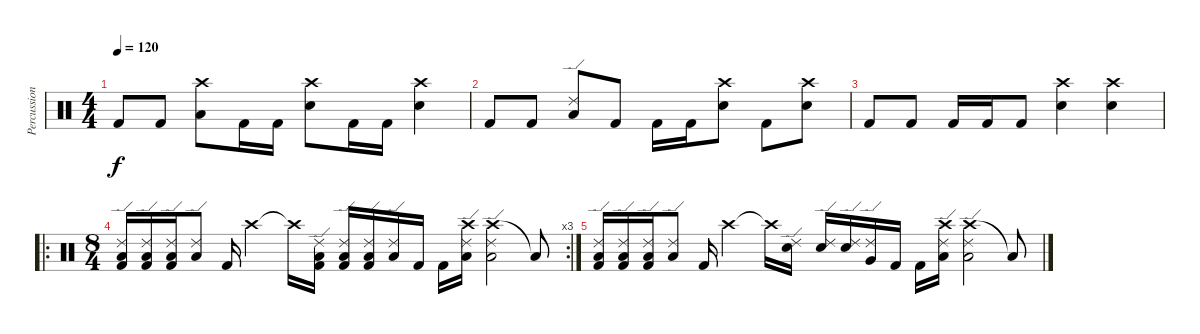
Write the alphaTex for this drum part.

\track ("Percussions" "Percussion") {instrument percussion}
\staff {score}
\articulation defaults
\ts (4 4)
\tempo 120
\clef neutral
\ks c "Kick (hit) 2".8{dy f} "Kick (hit) 2".8
("Crash high (hit)" "Low Tom (hit)").8 "Kick (hit) 2".16 "Kick (hit) 2".16 ("Crash high (hit)" "Electric Snare (hit)").8 "Kick (hit) 2".16 "Kick (hit) 2".16 ("Crash high (hit)" "Electric Snare (hit)").4 |
"Kick (hit) 2".8 "Kick (hit) 2".8 ("Ride (edge) 2" "Low Tom (hit)").8 "Kick (hit) 2".8 "Kick (hit) 2".16 "Kick (hit) 2".16 ("Crash high (hit)" "Electric Snare (hit)").8 "Kick (hit) 2".8 ("Crash high (hit)" "Electric Snare (hit)").8 |
"Kick (hit) 2".8 "Kick (hit) 2".8 "Kick (hit) 2".16 "Kick (hit) 2".16 "Kick (hit) 2".8 ("Crash high (hit)" "Electric Snare (hit)").4 ("Crash high (hit)" "Electric Snare (hit)").4 |
\ro
\rc 3
\ts (8 4)
("Ride (edge) 2" "Low Floor Tom (hit)" "Kick (hit) 2").16 ("Ride (edge) 2" "Low Floor Tom (hit)" "Kick (hit) 2").16 ("Ride (edge) 2" "Low Floor Tom (hit)" "Kick (hit) 2").16 ("Ride (edge) 2" "Low Tom (hit)").8 "Kick (hit) 2".16 "Crash high (hit)".2 "Crash high (hit)"{t}.16 ("Ride (edge) 2" "Low Floor Tom (hit)" "Kick (hit) 2").16 ("Ride (edge) 2" "Low Floor Tom (hit)" "Kick (hit) 2").16 ("Ride (edge) 2" "Low Floor Tom (hit)" "Kick (hit) 2").16 ("Ride (edge) 2" "Low Tom (hit)").16 "Kick (hit) 2".16 "Kick (hit) 2".16 ("Crash high (hit)" "Ride (edge) 2" "Low Tom (hit)").16 ("Crash high (hit)" "Ride (edge) 2" "Low Tom (hit)").2 "Low Tom (hit)"{t}.8 |
("Ride (edge) 2" "Low Floor Tom (hit)" "Kick (hit) 2").16 ("Ride (edge) 2" "Low Floor Tom (hit)" "Kick (hit) 2").16 ("Ride (edge) 2" "Low Floor Tom (hit)" "Kick (hit) 2").16 ("Ride (edge) 2" "Low Tom (hit)").8 "Kick (hit) 2".16 "Crash high (hit)".2 "Crash high (hit)"{t}.16 ("Ride (edge) 2" "Electric Snare (hit)").16 ("Ride (edge) 2" "Electric Snare (hit)").16 ("Ride (edge) 2" "Electric Snare (hit)").16 ("Ride (edge) 2" "Very Low Tom (hit)").16 "Kick (hit) 2".16 "Kick (hit) 2".16 ("Crash high (hit)" "Ride (edge) 2" "Low Tom (hit)").16 ("Crash high (hit)" "Ride (edge) 2" "Low Tom (hit)").2 "Low Tom (hit)"{t}.8
